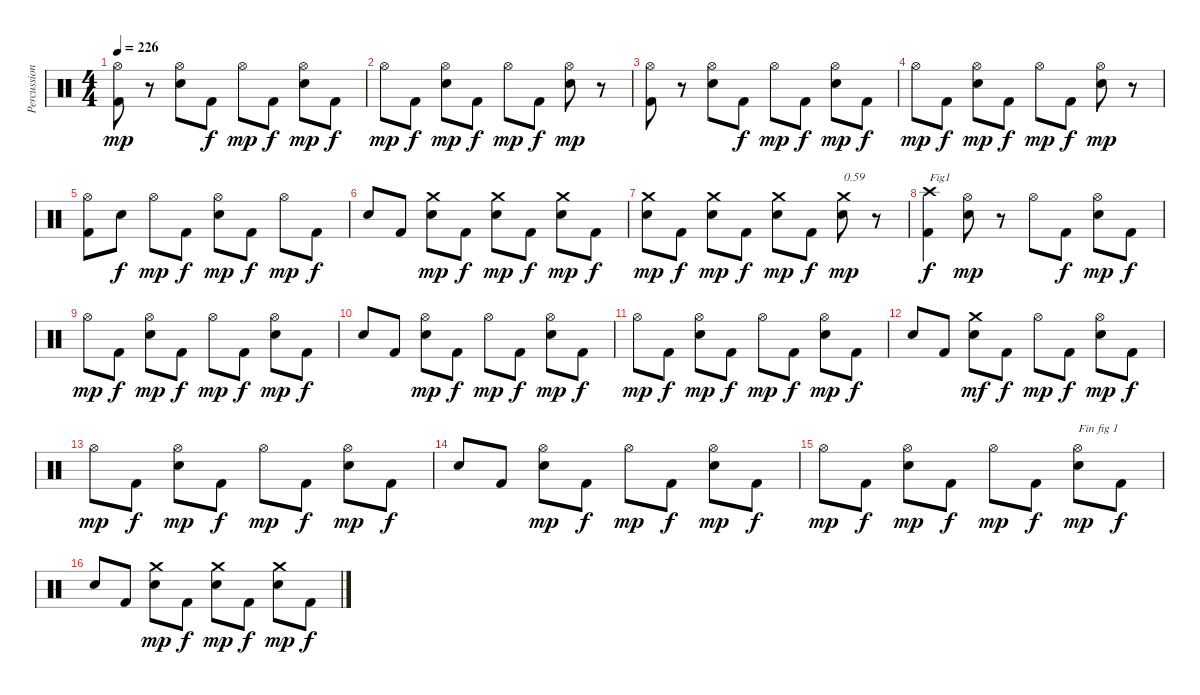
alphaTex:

\track ("Percussions" "Percussion") {instrument percussion}
\staff {score}
\articulation defaults
\ts (4 4)
\tempo 226
\clef neutral
\ks c
("Kick (hit) 2" "Hi-Hat (open)").8{dy mp} r.8 ("Electric Snare (hit)" "Hi-Hat (open)").8 "Kick (hit) 2".8{dy f} "Hi-Hat (open)".8{dy mp} "Kick (hit) 2".8{dy f} ("Electric Snare (hit)" "Hi-Hat (open)").8{dy mp} "Kick (hit) 2".8{dy f} |
"Hi-Hat (open)".8{dy mp} "Kick (hit) 2".8{dy f} ("Electric Snare (hit)" "Hi-Hat (open)").8{dy mp} "Kick (hit) 2".8{dy f} "Hi-Hat (open)".8{dy mp} "Kick (hit) 2".8{dy f} ("Electric Snare (hit)" "Hi-Hat (open)").8{dy mp} r.8 |
("Kick (hit) 2" "Hi-Hat (open)").8 r.8 ("Electric Snare (hit)" "Hi-Hat (open)").8 "Kick (hit) 2".8{dy f} "Hi-Hat (open)".8{dy mp} "Kick (hit) 2".8{dy f} ("Electric Snare (hit)" "Hi-Hat (open)").8{dy mp} "Kick (hit) 2".8{dy f} |
"Hi-Hat (open)".8{dy mp} "Kick (hit) 2".8{dy f} ("Electric Snare (hit)" "Hi-Hat (open)").8{dy mp} "Kick (hit) 2".8{dy f} "Hi-Hat (open)".8{dy mp} "Kick (hit) 2".8{dy f} ("Electric Snare (hit)" "Hi-Hat (open)").8{dy mp} r.8 |
("Kick (hit) 2" "Hi-Hat (open)").8 "Electric Snare (hit)".8{dy f} "Hi-Hat (open)".8{dy mp} "Kick (hit) 2".8{dy f} ("Electric Snare (hit)" "Hi-Hat (open)").8{dy mp} "Kick (hit) 2".8{dy f} "Hi-Hat (open)".8{dy mp} "Kick (hit) 2".8{dy f} |
"Electric Snare (hit)".8 "Kick (hit) 2".8 ("Electric Snare (hit)" "Crash medium (hit)").8{dy mp} "Kick (hit) 2".8{dy f} ("Electric Snare (hit)" "Crash medium (hit)").8{dy mp} "Kick (hit) 2".8{dy f} ("Electric Snare (hit)" "Crash medium (hit)").8{dy mp} "Kick (hit) 2".8{dy f} |
("Electric Snare (hit)" "Crash medium (hit)").8{dy mp} "Kick (hit) 2".8{dy f} ("Electric Snare (hit)" "Crash medium (hit)").8{dy mp} "Kick (hit) 2".8{dy f} ("Electric Snare (hit)" "Crash medium (hit)").8{dy mp} "Kick (hit) 2".8{dy f} ("Electric Snare (hit)" "Crash medium (hit)").8{txt "0.59" dy mp} r.8 |
("Kick (hit) 2" "Crash high (hit)").4{txt "Fig1 " dy f} ("Electric Snare (hit)" "Hi-Hat (open)").8{dy mp} r.8 "Hi-Hat (open)".8 "Kick (hit) 2".8{dy f} ("Electric Snare (hit)" "Hi-Hat (open)").8{dy mp} "Kick (hit) 2".8{dy f} |
"Hi-Hat (open)".8{dy mp} "Kick (hit) 2".8{dy f} ("Electric Snare (hit)" "Hi-Hat (open)").8{dy mp} "Kick (hit) 2".8{dy f} "Hi-Hat (open)".8{dy mp} "Kick (hit) 2".8{dy f} ("Electric Snare (hit)" "Hi-Hat (open)").8{dy mp} "Kick (hit) 2".8{dy f} |
"Electric Snare (hit)".8 "Kick (hit) 2".8 ("Electric Snare (hit)" "Hi-Hat (open)").8{dy mp} "Kick (hit) 2".8{dy f} "Hi-Hat (open)".8{dy mp} "Kick (hit) 2".8{dy f} ("Electric Snare (hit)" "Hi-Hat (open)").8{dy mp} "Kick (hit) 2".8{dy f} |
"Hi-Hat (open)".8{dy mp} "Kick (hit) 2".8{dy f} ("Electric Snare (hit)" "Hi-Hat (open)").8{dy mp} "Kick (hit) 2".8{dy f} "Hi-Hat (open)".8{dy mp} "Kick (hit) 2".8{dy f} ("Electric Snare (hit)" "Hi-Hat (open)").8{dy mp} "Kick (hit) 2".8{dy f} |
"Electric Snare (hit)".8 "Kick (hit) 2".8 ("Electric Snare (hit)" "Crash medium (hit)").8{dy mf} "Kick (hit) 2".8{dy f} "Hi-Hat (open)".8{dy mp} "Kick (hit) 2".8{dy f} ("Electric Snare (hit)" "Hi-Hat (open)").8{dy mp} "Kick (hit) 2".8{dy f} |
"Hi-Hat (open)".8{dy mp} "Kick (hit) 2".8{dy f} ("Electric Snare (hit)" "Hi-Hat (open)").8{dy mp} "Kick (hit) 2".8{dy f} "Hi-Hat (open)".8{dy mp} "Kick (hit) 2".8{dy f} ("Electric Snare (hit)" "Hi-Hat (open)").8{dy mp} "Kick (hit) 2".8{dy f} |
"Electric Snare (hit)".8 "Kick (hit) 2".8 ("Electric Snare (hit)" "Hi-Hat (open)").8{dy mp} "Kick (hit) 2".8{dy f} "Hi-Hat (open)".8{dy mp} "Kick (hit) 2".8{dy f} ("Electric Snare (hit)" "Hi-Hat (open)").8{dy mp} "Kick (hit) 2".8{dy f} |
"Hi-Hat (open)".8{dy mp} "Kick (hit) 2".8{dy f} ("Electric Snare (hit)" "Hi-Hat (open)").8{dy mp} "Kick (hit) 2".8{dy f} "Hi-Hat (open)".8{dy mp} "Kick (hit) 2".8{dy f} ("Electric Snare (hit)" "Hi-Hat (open)").8{txt "Fin fig 1" dy mp} "Kick (hit) 2".8{dy f} |
"Electric Snare (hit)".8 "Kick (hit) 2".8 ("Electric Snare (hit)" "Crash medium (hit)").8{dy mp} "Kick (hit) 2".8{dy f} ("Electric Snare (hit)" "Crash medium (hit)").8{dy mp} "Kick (hit) 2".8{dy f} ("Electric Snare (hit)" "Crash medium (hit)").8{dy mp} "Kick (hit) 2".8{dy f}
